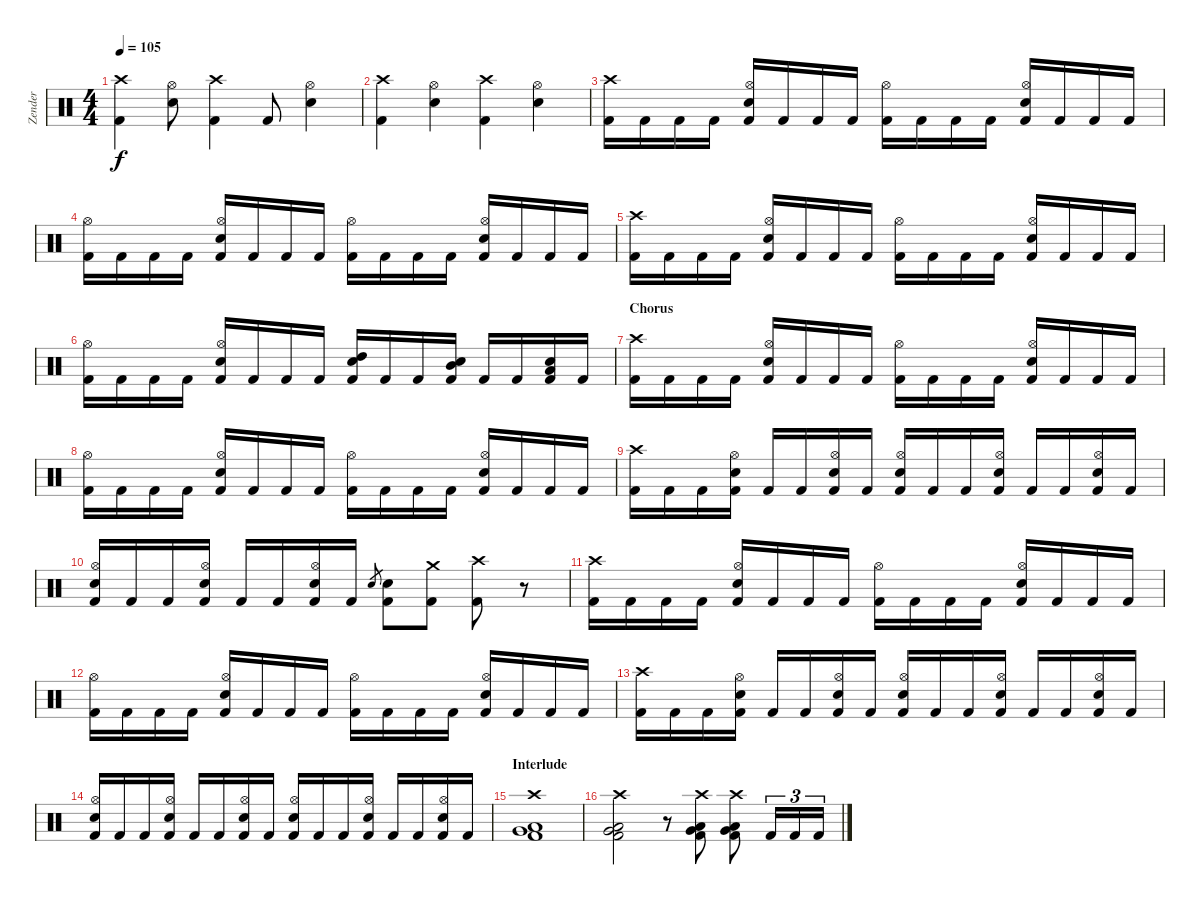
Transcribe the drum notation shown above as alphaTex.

\track ("Zender" "Zender") {instrument percussion}
\staff {score}
\articulation defaults
\ts (4 4)
\tempo 105
\clef neutral
\ks c
("Crash high (hit)" "Kick (hit) 2").4{dy f} ("Hi-Hat (open)" "Electric Snare (hit)").8 ("Crash high (hit)" "Kick (hit) 2").4 "Kick (hit) 2".8 ("Hi-Hat (open)" "Electric Snare (hit)").4 |
("Crash high (hit)" "Kick (hit) 2").4 ("Hi-Hat (open)" "Electric Snare (hit)").4 ("Crash high (hit)" "Kick (hit) 2").4 ("Hi-Hat (open)" "Electric Snare (hit)").4 |
("Crash high (hit)" "Kick (hit) 2").16 "Kick (hit) 2".16 "Kick (hit) 2".16 "Kick (hit) 2".16 ("Hi-Hat (open)" "Electric Snare (hit)" "Kick (hit) 2").16 "Kick (hit) 2".16 "Kick (hit) 2".16 "Kick (hit) 2".16 ("Hi-Hat (open)" "Kick (hit) 2").16 "Kick (hit) 2".16 "Kick (hit) 2".16 "Kick (hit) 2".16 ("Hi-Hat (open)" "Electric Snare (hit)" "Kick (hit) 2").16 "Kick (hit) 2".16 "Kick (hit) 2".16 "Kick (hit) 2".16 |
("Hi-Hat (open)" "Kick (hit) 2").16 "Kick (hit) 2".16 "Kick (hit) 2".16 "Kick (hit) 2".16 ("Hi-Hat (open)" "Electric Snare (hit)" "Kick (hit) 2").16 "Kick (hit) 2".16 "Kick (hit) 2".16 "Kick (hit) 2".16 ("Hi-Hat (open)" "Kick (hit) 2").16 "Kick (hit) 2".16 "Kick (hit) 2".16 "Kick (hit) 2".16 ("Hi-Hat (open)" "Electric Snare (hit)" "Kick (hit) 2").16 "Kick (hit) 2".16 "Kick (hit) 2".16 "Kick (hit) 2".16 |
("Crash high (hit)" "Kick (hit) 2").16 "Kick (hit) 2".16 "Kick (hit) 2".16 "Kick (hit) 2".16 ("Hi-Hat (open)" "Electric Snare (hit)" "Kick (hit) 2").16 "Kick (hit) 2".16 "Kick (hit) 2".16 "Kick (hit) 2".16 ("Hi-Hat (open)" "Kick (hit) 2").16 "Kick (hit) 2".16 "Kick (hit) 2".16 "Kick (hit) 2".16 ("Hi-Hat (open)" "Electric Snare (hit)" "Kick (hit) 2").16 "Kick (hit) 2".16 "Kick (hit) 2".16 "Kick (hit) 2".16 |
("Hi-Hat (open)" "Kick (hit) 2").16 "Kick (hit) 2".16 "Kick (hit) 2".16 "Kick (hit) 2".16 ("Hi-Hat (open)" "Electric Snare (hit)" "Kick (hit) 2").16 "Kick (hit) 2".16 "Kick (hit) 2".16 "Kick (hit) 2".16 ("Electric Snare (hit)" "High Tom (hit)" "Kick (hit) 2").16 "Kick (hit) 2".16 "Kick (hit) 2".16 ("Electric Snare (hit)" "Mid Tom (hit)" "Kick (hit) 2").16 "Kick (hit) 2".16 "Kick (hit) 2".16 ("Electric Snare (hit)" "Low Tom (hit)" "Kick (hit) 2").16 "Kick (hit) 2".16 |
\section ("" "Chorus")
("Crash high (hit)" "Kick (hit) 2").16 "Kick (hit) 2".16 "Kick (hit) 2".16 "Kick (hit) 2".16 ("Hi-Hat (open)" "Electric Snare (hit)" "Kick (hit) 2").16 "Kick (hit) 2".16 "Kick (hit) 2".16 "Kick (hit) 2".16 ("Hi-Hat (open)" "Kick (hit) 2").16 "Kick (hit) 2".16 "Kick (hit) 2".16 "Kick (hit) 2".16 ("Hi-Hat (open)" "Electric Snare (hit)" "Kick (hit) 2").16 "Kick (hit) 2".16 "Kick (hit) 2".16 "Kick (hit) 2".16 |
("Hi-Hat (open)" "Kick (hit) 2").16 "Kick (hit) 2".16 "Kick (hit) 2".16 "Kick (hit) 2".16 ("Hi-Hat (open)" "Electric Snare (hit)" "Kick (hit) 2").16 "Kick (hit) 2".16 "Kick (hit) 2".16 "Kick (hit) 2".16 ("Hi-Hat (open)" "Kick (hit) 2").16 "Kick (hit) 2".16 "Kick (hit) 2".16 "Kick (hit) 2".16 ("Hi-Hat (open)" "Electric Snare (hit)" "Kick (hit) 2").16 "Kick (hit) 2".16 "Kick (hit) 2".16 "Kick (hit) 2".16 |
("Crash high (hit)" "Kick (hit) 2").16 "Kick (hit) 2".16 "Kick (hit) 2".16 ("Hi-Hat (open)" "Electric Snare (hit)" "Kick (hit) 2").16 "Kick (hit) 2".16 "Kick (hit) 2".16 ("Hi-Hat (open)" "Electric Snare (hit)" "Kick (hit) 2").16 "Kick (hit) 2".16 ("Hi-Hat (open)" "Electric Snare (hit)" "Kick (hit) 2").16 "Kick (hit) 2".16 "Kick (hit) 2".16 ("Hi-Hat (open)" "Electric Snare (hit)" "Kick (hit) 2").16 "Kick (hit) 2".16 "Kick (hit) 2".16 ("Hi-Hat (open)" "Electric Snare (hit)" "Kick (hit) 2").16 "Kick (hit) 2".16 |
("Hi-Hat (open)" "Electric Snare (hit)" "Kick (hit) 2").16 "Kick (hit) 2".16 "Kick (hit) 2".16 ("Hi-Hat (open)" "Electric Snare (hit)" "Kick (hit) 2").16 "Kick (hit) 2".16 "Kick (hit) 2".16 ("Hi-Hat (open)" "Electric Snare (hit)" "Kick (hit) 2").16 "Kick (hit) 2".16 "Electric Snare (hit)".8{gr} ("Electric Snare (hit)" "Kick (hit) 2").8 ("Crash medium (hit)" "Kick (hit) 2").8 ("Crash high (hit)" "Kick (hit) 2").8 r.8 |
("Crash high (hit)" "Kick (hit) 2").16 "Kick (hit) 2".16 "Kick (hit) 2".16 "Kick (hit) 2".16 ("Hi-Hat (open)" "Electric Snare (hit)" "Kick (hit) 2").16 "Kick (hit) 2".16 "Kick (hit) 2".16 "Kick (hit) 2".16 ("Hi-Hat (open)" "Kick (hit) 2").16 "Kick (hit) 2".16 "Kick (hit) 2".16 "Kick (hit) 2".16 ("Hi-Hat (open)" "Electric Snare (hit)" "Kick (hit) 2").16 "Kick (hit) 2".16 "Kick (hit) 2".16 "Kick (hit) 2".16 |
("Hi-Hat (open)" "Kick (hit) 2").16 "Kick (hit) 2".16 "Kick (hit) 2".16 "Kick (hit) 2".16 ("Hi-Hat (open)" "Electric Snare (hit)" "Kick (hit) 2").16 "Kick (hit) 2".16 "Kick (hit) 2".16 "Kick (hit) 2".16 ("Hi-Hat (open)" "Kick (hit) 2").16 "Kick (hit) 2".16 "Kick (hit) 2".16 "Kick (hit) 2".16 ("Hi-Hat (open)" "Electric Snare (hit)" "Kick (hit) 2").16 "Kick (hit) 2".16 "Kick (hit) 2".16 "Kick (hit) 2".16 |
("Crash high (hit)" "Kick (hit) 2").16 "Kick (hit) 2".16 "Kick (hit) 2".16 ("Hi-Hat (open)" "Electric Snare (hit)" "Kick (hit) 2").16 "Kick (hit) 2".16 "Kick (hit) 2".16 ("Hi-Hat (open)" "Electric Snare (hit)" "Kick (hit) 2").16 "Kick (hit) 2".16 ("Hi-Hat (open)" "Electric Snare (hit)" "Kick (hit) 2").16 "Kick (hit) 2".16 "Kick (hit) 2".16 ("Hi-Hat (open)" "Electric Snare (hit)" "Kick (hit) 2").16 "Kick (hit) 2".16 "Kick (hit) 2".16 ("Hi-Hat (open)" "Electric Snare (hit)" "Kick (hit) 2").16 "Kick (hit) 2".16 |
("Hi-Hat (open)" "Electric Snare (hit)" "Kick (hit) 2").16 "Kick (hit) 2".16 "Kick (hit) 2".16 ("Hi-Hat (open)" "Electric Snare (hit)" "Kick (hit) 2").16 "Kick (hit) 2".16 "Kick (hit) 2".16 ("Hi-Hat (open)" "Electric Snare (hit)" "Kick (hit) 2").16 "Kick (hit) 2".16 ("Hi-Hat (open)" "Electric Snare (hit)" "Kick (hit) 2").16 "Kick (hit) 2".16 "Kick (hit) 2".16 ("Hi-Hat (open)" "Electric Snare (hit)" "Kick (hit) 2").16 "Kick (hit) 2".16 "Kick (hit) 2".16 ("Hi-Hat (open)" "Electric Snare (hit)" "Kick (hit) 2").16 "Kick (hit) 2".16 |
\section ("" "Interlude")
("Crash high (hit)" "Low Floor Tom (hit)" "Very Low Tom (hit)" "Kick (hit) 2").1 |
("Crash high (hit)" "Low Floor Tom (hit)" "Very Low Tom (hit)" "Kick (hit) 2").2 r.8 ("Crash high (hit)" "Low Floor Tom (hit)" "Very Low Tom (hit)" "Kick (hit) 2").8 ("Crash high (hit)" "Low Floor Tom (hit)" "Very Low Tom (hit)" "Kick (hit) 2").8 "Kick (hit) 2".16{tu (3 2)} "Kick (hit) 2".16{tu (3 2)} "Kick (hit) 2".16{tu (3 2)}
